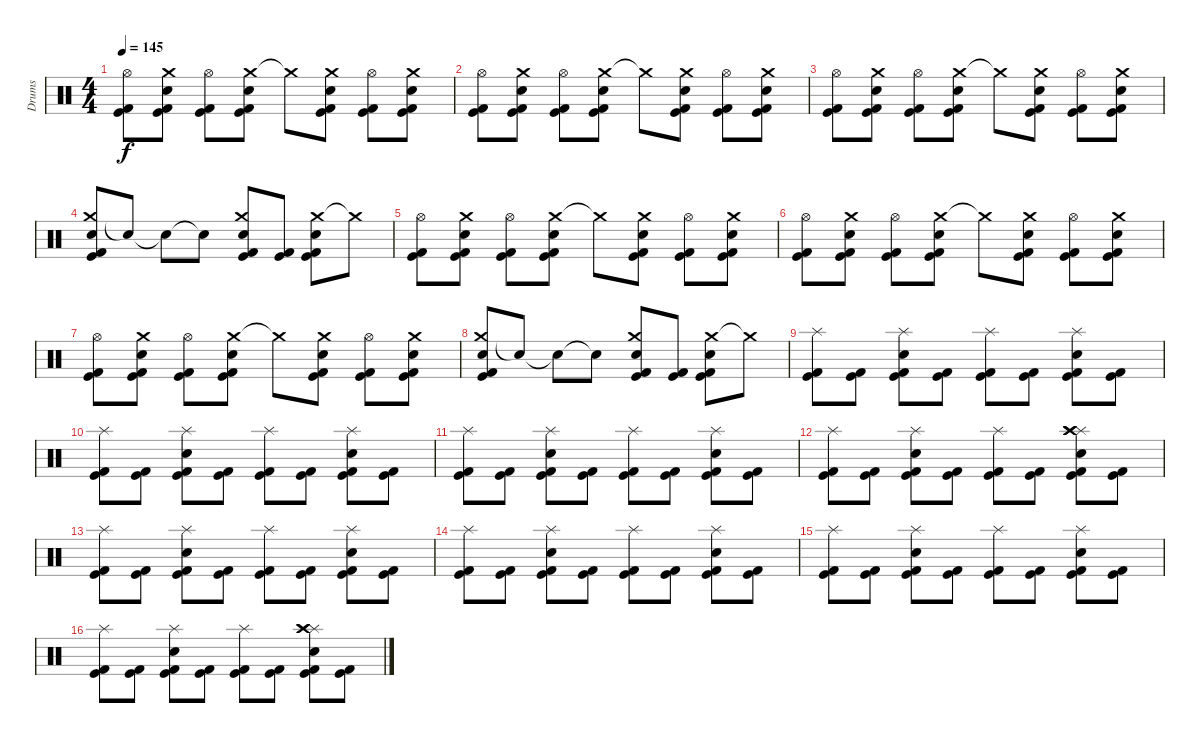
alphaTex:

\track ("Drums" "Drums") {instrument percussion}
\staff {score}
\articulation defaults
\ts (4 4)
\tempo 145
\clef neutral
\ks c
("Hi-Hat (open)" "Kick (hit) 2" "Kick (hit)").8{dy f} ("Crash medium (hit)" "Snare (hit) 2" "Kick (hit) 2" "Kick (hit)").8 ("Hi-Hat (open)" "Kick (hit) 2" "Kick (hit)").8 ("Crash medium (hit)" "Snare (hit) 2" "Kick (hit) 2" "Kick (hit)").8 "Crash medium (hit)"{t}.8 ("Crash medium (hit)" "Snare (hit) 2" "Kick (hit) 2" "Kick (hit)").8 ("Hi-Hat (open)" "Kick (hit) 2" "Kick (hit)").8 ("Crash medium (hit)" "Snare (hit) 2" "Kick (hit) 2" "Kick (hit)").8 |
("Hi-Hat (open)" "Kick (hit) 2" "Kick (hit)").8 ("Crash medium (hit)" "Snare (hit) 2" "Kick (hit) 2" "Kick (hit)").8 ("Hi-Hat (open)" "Kick (hit) 2" "Kick (hit)").8 ("Crash medium (hit)" "Snare (hit) 2" "Kick (hit) 2" "Kick (hit)").8 "Crash medium (hit)"{t}.8 ("Crash medium (hit)" "Snare (hit) 2" "Kick (hit) 2" "Kick (hit)").8 ("Hi-Hat (open)" "Kick (hit) 2" "Kick (hit)").8 ("Crash medium (hit)" "Snare (hit) 2" "Kick (hit) 2" "Kick (hit)").8 |
("Hi-Hat (open)" "Kick (hit) 2" "Kick (hit)").8 ("Crash medium (hit)" "Snare (hit) 2" "Kick (hit) 2" "Kick (hit)").8 ("Hi-Hat (open)" "Kick (hit) 2" "Kick (hit)").8 ("Crash medium (hit)" "Snare (hit) 2" "Kick (hit) 2" "Kick (hit)").8 "Crash medium (hit)"{t}.8 ("Crash medium (hit)" "Snare (hit) 2" "Kick (hit) 2" "Kick (hit)").8 ("Hi-Hat (open)" "Kick (hit) 2" "Kick (hit)").8 ("Crash medium (hit)" "Snare (hit) 2" "Kick (hit) 2" "Kick (hit)").8 |
("Crash medium (hit)" "Snare (hit) 2" "Kick (hit) 2" "Kick (hit)").8 "Snare (hit)"{t}.8 "Snare (hit)"{t}.8 "Snare (hit)"{t}.8 ("Crash medium (hit)" "Snare (hit) 2" "Kick (hit) 2" "Kick (hit)").8 ("Kick (hit) 2" "Kick (hit)").8 ("Crash medium (hit)" "Snare (hit) 2" "Kick (hit) 2" "Kick (hit)").8 "Crash medium (hit)"{t}.8 |
("Hi-Hat (open)" "Kick (hit) 2" "Kick (hit)").8 ("Crash medium (hit)" "Snare (hit) 2" "Kick (hit) 2" "Kick (hit)").8 ("Hi-Hat (open)" "Kick (hit) 2" "Kick (hit)").8 ("Crash medium (hit)" "Snare (hit) 2" "Kick (hit) 2" "Kick (hit)").8 "Crash medium (hit)"{t}.8 ("Crash medium (hit)" "Snare (hit) 2" "Kick (hit) 2" "Kick (hit)").8 ("Hi-Hat (open)" "Kick (hit) 2" "Kick (hit)").8 ("Crash medium (hit)" "Snare (hit) 2" "Kick (hit) 2" "Kick (hit)").8 |
("Hi-Hat (open)" "Kick (hit) 2" "Kick (hit)").8 ("Crash medium (hit)" "Snare (hit) 2" "Kick (hit) 2" "Kick (hit)").8 ("Hi-Hat (open)" "Kick (hit) 2" "Kick (hit)").8 ("Crash medium (hit)" "Snare (hit) 2" "Kick (hit) 2" "Kick (hit)").8 "Crash medium (hit)"{t}.8 ("Crash medium (hit)" "Snare (hit) 2" "Kick (hit) 2" "Kick (hit)").8 ("Hi-Hat (open)" "Kick (hit) 2" "Kick (hit)").8 ("Crash medium (hit)" "Snare (hit) 2" "Kick (hit) 2" "Kick (hit)").8 |
("Hi-Hat (open)" "Kick (hit) 2" "Kick (hit)").8 ("Crash medium (hit)" "Snare (hit) 2" "Kick (hit) 2" "Kick (hit)").8 ("Hi-Hat (open)" "Kick (hit) 2" "Kick (hit)").8 ("Crash medium (hit)" "Snare (hit) 2" "Kick (hit) 2" "Kick (hit)").8 "Crash medium (hit)"{t}.8 ("Crash medium (hit)" "Snare (hit) 2" "Kick (hit) 2" "Kick (hit)").8 ("Hi-Hat (open)" "Kick (hit) 2" "Kick (hit)").8 ("Crash medium (hit)" "Snare (hit) 2" "Kick (hit) 2" "Kick (hit)").8 |
("Crash medium (hit)" "Snare (hit) 2" "Kick (hit) 2" "Kick (hit)").8 "Snare (hit)"{t}.8 "Snare (hit)"{t}.8 "Snare (hit)"{t}.8 ("Crash medium (hit)" "Snare (hit) 2" "Kick (hit) 2" "Kick (hit)").8 ("Kick (hit) 2" "Kick (hit)").8 ("Crash medium (hit)" "Snare (hit) 2" "Kick (hit) 2" "Kick (hit)").8 "Crash medium (hit)"{t}.8 |
("Splash (hit)" "Kick (hit) 2" "Kick (hit)").8 ("Kick (hit) 2" "Kick (hit)").8 ("Splash (hit)" "Snare (hit) 2" "Kick (hit) 2" "Kick (hit)").8 ("Kick (hit) 2" "Kick (hit)").8 ("Splash (hit)" "Kick (hit) 2" "Kick (hit)").8 ("Kick (hit) 2" "Kick (hit)").8 ("Splash (hit)" "Snare (hit) 2" "Kick (hit) 2" "Kick (hit)").8 ("Kick (hit) 2" "Kick (hit)").8 |
("Splash (hit)" "Kick (hit) 2" "Kick (hit)").8 ("Kick (hit) 2" "Kick (hit)").8 ("Splash (hit)" "Snare (hit) 2" "Kick (hit) 2" "Kick (hit)").8 ("Kick (hit) 2" "Kick (hit)").8 ("Splash (hit)" "Kick (hit) 2" "Kick (hit)").8 ("Kick (hit) 2" "Kick (hit)").8 ("Splash (hit)" "Snare (hit) 2" "Kick (hit) 2" "Kick (hit)").8 ("Kick (hit) 2" "Kick (hit)").8 |
("Splash (hit)" "Kick (hit) 2" "Kick (hit)").8 ("Kick (hit) 2" "Kick (hit)").8 ("Splash (hit)" "Snare (hit) 2" "Kick (hit) 2" "Kick (hit)").8 ("Kick (hit) 2" "Kick (hit)").8 ("Splash (hit)" "Kick (hit) 2" "Kick (hit)").8 ("Kick (hit) 2" "Kick (hit)").8 ("Splash (hit)" "Snare (hit) 2" "Kick (hit) 2" "Kick (hit)").8 ("Kick (hit) 2" "Kick (hit)").8 |
("Splash (hit)" "Kick (hit) 2" "Kick (hit)").8 ("Kick (hit) 2" "Kick (hit)").8 ("Splash (hit)" "Snare (hit) 2" "Kick (hit) 2" "Kick (hit)").8 ("Kick (hit) 2" "Kick (hit)").8 ("Splash (hit)" "Kick (hit) 2" "Kick (hit)").8 ("Kick (hit) 2" "Kick (hit)").8 ("Splash (hit)" "Snare (hit) 2" "Kick (hit) 2" "Kick (hit)" "Crash high (hit)" "Crash high (hit)").8 ("Kick (hit) 2" "Kick (hit)").8 |
("Splash (hit)" "Kick (hit) 2" "Kick (hit)").8 ("Kick (hit) 2" "Kick (hit)").8 ("Splash (hit)" "Snare (hit) 2" "Kick (hit) 2" "Kick (hit)").8 ("Kick (hit) 2" "Kick (hit)").8 ("Splash (hit)" "Kick (hit) 2" "Kick (hit)").8 ("Kick (hit) 2" "Kick (hit)").8 ("Splash (hit)" "Snare (hit) 2" "Kick (hit) 2" "Kick (hit)").8 ("Kick (hit) 2" "Kick (hit)").8 |
("Splash (hit)" "Kick (hit) 2" "Kick (hit)").8 ("Kick (hit) 2" "Kick (hit)").8 ("Splash (hit)" "Snare (hit) 2" "Kick (hit) 2" "Kick (hit)").8 ("Kick (hit) 2" "Kick (hit)").8 ("Splash (hit)" "Kick (hit) 2" "Kick (hit)").8 ("Kick (hit) 2" "Kick (hit)").8 ("Splash (hit)" "Snare (hit) 2" "Kick (hit) 2" "Kick (hit)").8 ("Kick (hit) 2" "Kick (hit)").8 |
("Splash (hit)" "Kick (hit) 2" "Kick (hit)").8 ("Kick (hit) 2" "Kick (hit)").8 ("Splash (hit)" "Snare (hit) 2" "Kick (hit) 2" "Kick (hit)").8 ("Kick (hit) 2" "Kick (hit)").8 ("Splash (hit)" "Kick (hit) 2" "Kick (hit)").8 ("Kick (hit) 2" "Kick (hit)").8 ("Splash (hit)" "Snare (hit) 2" "Kick (hit) 2" "Kick (hit)").8 ("Kick (hit) 2" "Kick (hit)").8 |
("Splash (hit)" "Kick (hit) 2" "Kick (hit)").8 ("Kick (hit) 2" "Kick (hit)").8 ("Splash (hit)" "Snare (hit) 2" "Kick (hit) 2" "Kick (hit)").8 ("Kick (hit) 2" "Kick (hit)").8 ("Splash (hit)" "Kick (hit) 2" "Kick (hit)").8 ("Kick (hit) 2" "Kick (hit)").8 ("Splash (hit)" "Snare (hit) 2" "Kick (hit) 2" "Kick (hit)" "Crash high (hit)" "Crash high (hit)").8 ("Kick (hit) 2" "Kick (hit)").8
